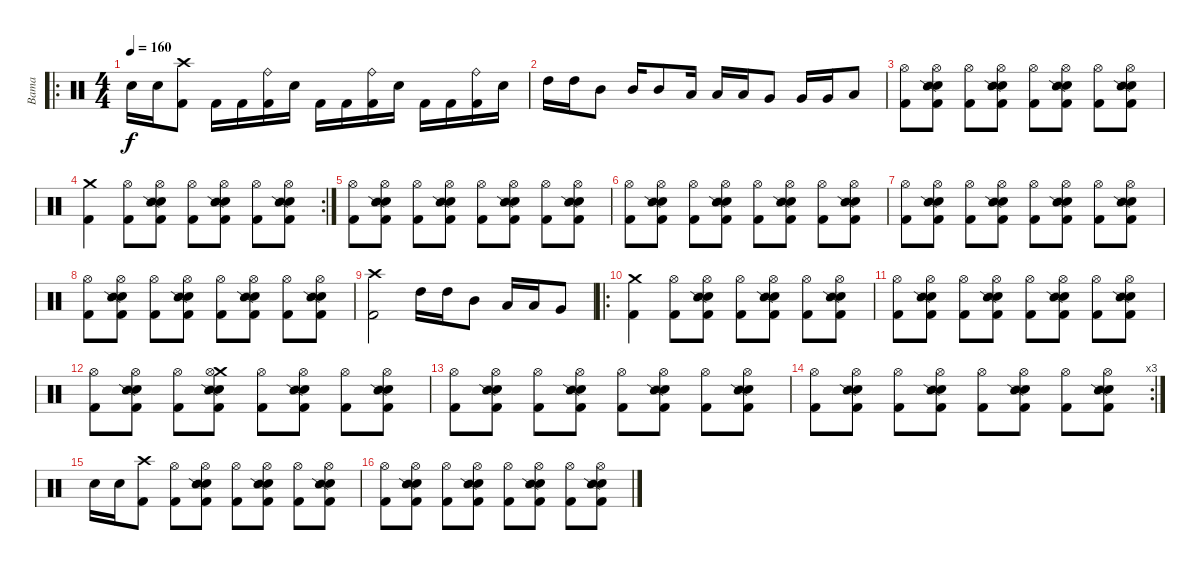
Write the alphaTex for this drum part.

\track ("Bama" "Bama") {instrument percussion}
\staff {score}
\articulation defaults
\ro
\ts (4 4)
\tempo 160
\clef neutral
\ks c "Electric Snare (hit)".16{dy f} "Electric Snare (hit)".16
("Crash high (hit)" "Kick (hit) 2").8 "Kick (hit) 2".16 "Kick (hit) 2".16 ("Ride (bell)" "Kick (hit) 2").16 "Electric Snare (hit)".16 "Kick (hit) 2".16 "Kick (hit) 2".16 ("Ride (bell)" "Kick (hit) 2").16 "Electric Snare (hit)".16 "Kick (hit) 2".16 "Kick (hit) 2".16 ("Ride (bell)" "Kick (hit) 2").16 "Electric Snare (hit)".16 |
"High Tom (hit)".16 "High Tom (hit)".16 "Mid Tom (hit)".8 "Mid Tom (hit)".16 "Mid Tom (hit)".8 "Low Tom (hit)".16 "Low Tom (hit)".16 "Low Tom (hit)".16 "Very Low Tom (hit)".8 "Very Low Tom (hit)".16 "Very Low Tom (hit)".16 "Low Floor Tom (hit)".8 |
("Hi-Hat (open)" "Kick (hit) 2").8 ("Hi-Hat (open)" "Electric Snare (hit)" "Snare (side stick) 2" "Kick (hit) 2").8 ("Hi-Hat (open)" "Kick (hit) 2").8 ("Hi-Hat (open)" "Electric Snare (hit)" "Snare (side stick) 2" "Kick (hit) 2").8 ("Hi-Hat (open)" "Kick (hit) 2").8 ("Hi-Hat (open)" "Electric Snare (hit)" "Snare (side stick) 2" "Kick (hit) 2").8 ("Hi-Hat (open)" "Kick (hit) 2").8 ("Hi-Hat (open)" "Electric Snare (hit)" "Snare (side stick) 2" "Kick (hit) 2").8 |
\rc 2
("Crash medium (hit)" "Kick (hit) 2").4 ("Hi-Hat (open)" "Kick (hit) 2").8 ("Hi-Hat (open)" "Electric Snare (hit)" "Snare (side stick) 2" "Kick (hit) 2").8 ("Hi-Hat (open)" "Kick (hit) 2").8 ("Hi-Hat (open)" "Electric Snare (hit)" "Snare (side stick) 2" "Kick (hit) 2").8 ("Hi-Hat (open)" "Kick (hit) 2").8 ("Hi-Hat (open)" "Electric Snare (hit)" "Snare (side stick) 2" "Kick (hit) 2").8 |
("Hi-Hat (open)" "Kick (hit) 2").8 ("Hi-Hat (open)" "Electric Snare (hit)" "Snare (side stick) 2" "Kick (hit) 2").8 ("Hi-Hat (open)" "Kick (hit) 2").8 ("Hi-Hat (open)" "Electric Snare (hit)" "Snare (side stick) 2" "Kick (hit) 2").8 ("Hi-Hat (open)" "Kick (hit) 2").8 ("Hi-Hat (open)" "Electric Snare (hit)" "Snare (side stick) 2" "Kick (hit) 2").8 ("Hi-Hat (open)" "Kick (hit) 2").8 ("Hi-Hat (open)" "Electric Snare (hit)" "Snare (side stick) 2" "Kick (hit) 2").8 |
("Hi-Hat (open)" "Kick (hit) 2").8 ("Hi-Hat (open)" "Electric Snare (hit)" "Snare (side stick) 2" "Kick (hit) 2").8 ("Hi-Hat (open)" "Kick (hit) 2").8 ("Hi-Hat (open)" "Electric Snare (hit)" "Snare (side stick) 2" "Kick (hit) 2").8 ("Hi-Hat (open)" "Kick (hit) 2").8 ("Hi-Hat (open)" "Electric Snare (hit)" "Snare (side stick) 2" "Kick (hit) 2").8 ("Hi-Hat (open)" "Kick (hit) 2").8 ("Hi-Hat (open)" "Electric Snare (hit)" "Snare (side stick) 2" "Kick (hit) 2").8 |
("Hi-Hat (open)" "Kick (hit) 2").8 ("Hi-Hat (open)" "Electric Snare (hit)" "Snare (side stick) 2" "Kick (hit) 2").8 ("Hi-Hat (open)" "Kick (hit) 2").8 ("Hi-Hat (open)" "Electric Snare (hit)" "Snare (side stick) 2" "Kick (hit) 2").8 ("Hi-Hat (open)" "Kick (hit) 2").8 ("Hi-Hat (open)" "Electric Snare (hit)" "Snare (side stick) 2" "Kick (hit) 2").8 ("Hi-Hat (open)" "Kick (hit) 2").8 ("Hi-Hat (open)" "Electric Snare (hit)" "Snare (side stick) 2" "Kick (hit) 2").8 |
("Hi-Hat (open)" "Kick (hit) 2").8 ("Hi-Hat (open)" "Electric Snare (hit)" "Snare (side stick) 2" "Kick (hit) 2").8 ("Hi-Hat (open)" "Kick (hit) 2").8 ("Hi-Hat (open)" "Electric Snare (hit)" "Snare (side stick) 2" "Kick (hit) 2").8 ("Hi-Hat (open)" "Kick (hit) 2").8 ("Hi-Hat (open)" "Electric Snare (hit)" "Snare (side stick) 2" "Kick (hit) 2").8 ("Hi-Hat (open)" "Kick (hit) 2").8 ("Hi-Hat (open)" "Electric Snare (hit)" "Snare (side stick) 2" "Kick (hit) 2").8 |
("Crash high (hit)" "Kick (hit) 2").2 "High Tom (hit)".16 "High Tom (hit)".16 "Mid Tom (hit)".8 "Low Tom (hit)".16 "Low Tom (hit)".16 "Very Low Tom (hit)".8 |
\ro
("Crash medium (hit)" "Kick (hit) 2").4 ("Hi-Hat (open)" "Kick (hit) 2").8 ("Hi-Hat (open)" "Electric Snare (hit)" "Snare (side stick) 2" "Kick (hit) 2").8 ("Hi-Hat (open)" "Kick (hit) 2").8 ("Hi-Hat (open)" "Electric Snare (hit)" "Snare (side stick) 2" "Kick (hit) 2").8 ("Hi-Hat (open)" "Kick (hit) 2").8 ("Hi-Hat (open)" "Electric Snare (hit)" "Snare (side stick) 2" "Kick (hit) 2").8 |
("Hi-Hat (open)" "Kick (hit) 2").8 ("Hi-Hat (open)" "Electric Snare (hit)" "Snare (side stick) 2" "Kick (hit) 2").8 ("Hi-Hat (open)" "Kick (hit) 2").8 ("Hi-Hat (open)" "Electric Snare (hit)" "Snare (side stick) 2" "Kick (hit) 2").8 ("Hi-Hat (open)" "Kick (hit) 2").8 ("Hi-Hat (open)" "Electric Snare (hit)" "Snare (side stick) 2" "Kick (hit) 2").8 ("Hi-Hat (open)" "Kick (hit) 2").8 ("Hi-Hat (open)" "Electric Snare (hit)" "Snare (side stick) 2" "Kick (hit) 2").8 |
("Hi-Hat (open)" "Kick (hit) 2").8 ("Hi-Hat (open)" "Electric Snare (hit)" "Snare (side stick) 2" "Kick (hit) 2").8 ("Hi-Hat (open)" "Kick (hit) 2").8 ("Crash medium (hit)" "Hi-Hat (open)" "Electric Snare (hit)" "Snare (side stick) 2" "Kick (hit) 2").8 ("Hi-Hat (open)" "Kick (hit) 2").8 ("Hi-Hat (open)" "Electric Snare (hit)" "Snare (side stick) 2" "Kick (hit) 2").8 ("Hi-Hat (open)" "Kick (hit) 2").8 ("Hi-Hat (open)" "Electric Snare (hit)" "Snare (side stick) 2" "Kick (hit) 2").8 |
("Hi-Hat (open)" "Kick (hit) 2").8 ("Hi-Hat (open)" "Electric Snare (hit)" "Snare (side stick) 2" "Kick (hit) 2").8 ("Hi-Hat (open)" "Kick (hit) 2").8 ("Hi-Hat (open)" "Electric Snare (hit)" "Snare (side stick) 2" "Kick (hit) 2").8 ("Hi-Hat (open)" "Kick (hit) 2").8 ("Hi-Hat (open)" "Electric Snare (hit)" "Snare (side stick) 2" "Kick (hit) 2").8 ("Hi-Hat (open)" "Kick (hit) 2").8 ("Hi-Hat (open)" "Electric Snare (hit)" "Snare (side stick) 2" "Kick (hit) 2").8 |
\rc 3
("Hi-Hat (open)" "Kick (hit) 2").8 ("Hi-Hat (open)" "Electric Snare (hit)" "Snare (side stick) 2" "Kick (hit) 2").8 ("Hi-Hat (open)" "Kick (hit) 2").8 ("Hi-Hat (open)" "Electric Snare (hit)" "Snare (side stick) 2" "Kick (hit) 2").8 ("Hi-Hat (open)" "Kick (hit) 2").8 ("Hi-Hat (open)" "Electric Snare (hit)" "Snare (side stick) 2" "Kick (hit) 2").8 ("Hi-Hat (open)" "Kick (hit) 2").8 ("Hi-Hat (open)" "Electric Snare (hit)" "Snare (side stick) 2" "Kick (hit) 2").8 |
"Electric Snare (hit)".16 "Electric Snare (hit)".16 ("Crash high (hit)" "Kick (hit) 2").8 ("Hi-Hat (open)" "Kick (hit) 2").8 ("Hi-Hat (open)" "Electric Snare (hit)" "Snare (side stick) 2" "Kick (hit) 2").8 ("Hi-Hat (open)" "Kick (hit) 2").8 ("Hi-Hat (open)" "Electric Snare (hit)" "Snare (side stick) 2" "Kick (hit) 2").8 ("Hi-Hat (open)" "Kick (hit) 2").8 ("Hi-Hat (open)" "Electric Snare (hit)" "Snare (side stick) 2" "Kick (hit) 2").8 |
("Hi-Hat (open)" "Kick (hit) 2").8 ("Hi-Hat (open)" "Electric Snare (hit)" "Snare (side stick) 2" "Kick (hit) 2").8 ("Hi-Hat (open)" "Kick (hit) 2").8 ("Hi-Hat (open)" "Electric Snare (hit)" "Snare (side stick) 2" "Kick (hit) 2").8 ("Hi-Hat (open)" "Kick (hit) 2").8 ("Hi-Hat (open)" "Electric Snare (hit)" "Snare (side stick) 2" "Kick (hit) 2").8 ("Hi-Hat (open)" "Kick (hit) 2").8 ("Hi-Hat (open)" "Electric Snare (hit)" "Snare (side stick) 2" "Kick (hit) 2").8
